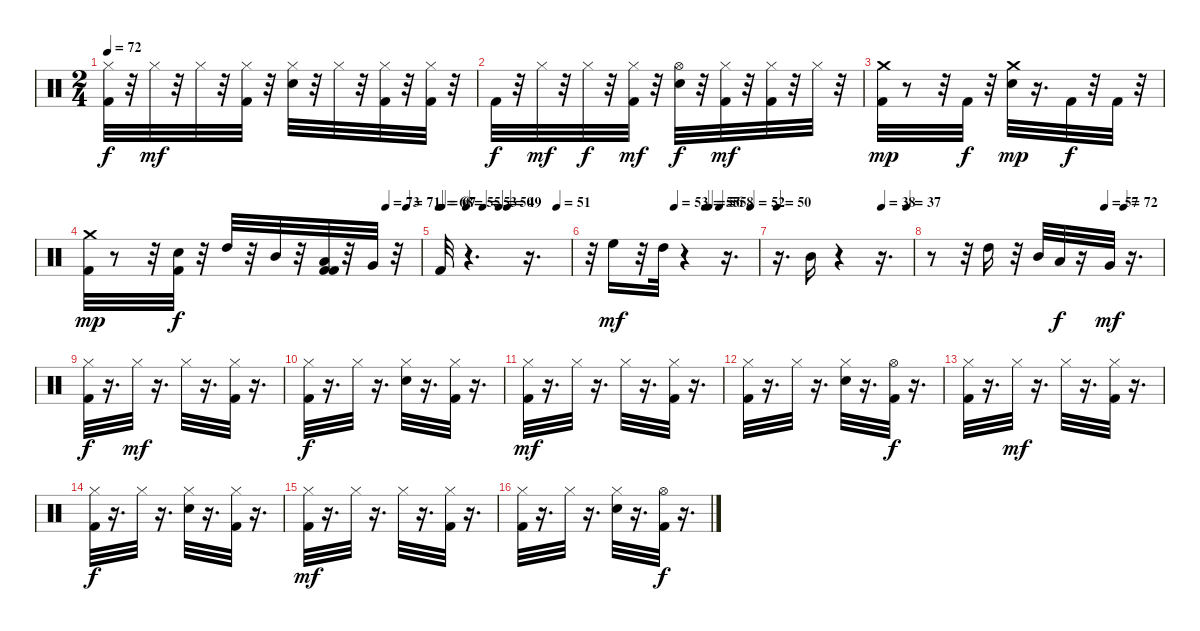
\track "" {instrument percussion}
\staff {score}
\articulation defaults
\ts (2 4)
\tempo 72
\clef neutral
\ks c
("Hi-Hat (closed)" "Kick (hit) 2").32{dy f} r.32 "Hi-Hat (closed)".32{dy mf} r.32 "Hi-Hat (closed)".32 r.32 ("Hi-Hat (closed)" "Kick (hit) 2").32 r.32 ("Hi-Hat (closed)" "Snare (hit) 2").32 r.32 "Hi-Hat (closed)".32 r.32 ("Kick (hit) 2" "Hi-Hat (closed)").32 r.32 ("Kick (hit) 2" "Hi-Hat (closed)").32 r.32 |
"Kick (hit) 2".32{dy f} r.32 "Hi-Hat (closed)".32{dy mf} r.32 "Hi-Hat (closed)".32{dy f} r.32 ("Kick (hit) 2" "Hi-Hat (closed)").32{dy mf} r.32 ("Snare (hit) 2" "Hi-Hat (open)").32{dy f} r.32 ("Kick (hit) 2" "Hi-Hat (closed)").32{dy mf} r.32 ("Hi-Hat (closed)" "Kick (hit) 2").32 r.32 "Hi-Hat (closed)".32 r.32 |
("Crash medium (hit)" "Kick (hit) 2").32{dy mp} r.8 r.32 "Kick (hit) 2".32{dy f} r.32 ("Snare (hit) 2" "Crash medium (hit)").32{dy mp} r.16{d} "Kick (hit) 2".32{dy f} r.32 "Kick (hit) 2".32 r.32 |
\tempo (73 0.8958333333333334)
\tempo (71 0.9583333333333334)
("Kick (hit) 2" "Crash medium (hit)").32{dy mp} r.8 r.32 ("Kick (hit) 2" "Snare (hit) 2").32{dy f} r.32 "High Tom (hit)".32 r.32 "Mid Tom (hit)".32 r.32 ("Kick (hit) 2" "Low Tom (hit)" "Kick (hit) 2").32 r.32 "Very Low Tom (hit)".32 r.32 |
\tempo 68
\tempo (67 0.020833333333333332)
\tempo (55 0.20833333333333334)
\tempo (53 0.3333333333333333)
\tempo (50 0.4583333333333333)
\tempo (49 0.5208333333333334)
\tempo (51 0.8958333333333334)
"Kick (hit) 2".32 r.4{d} r.16{d} |
\tempo (53 0.5)
\tempo (55 0.6875)
\tempo (56 0.7083333333333334)
\tempo (58 0.7708333333333334)
\tempo (52 0.9583333333333334)
r.32 "High Floor Tom (hit)".16{dy mf} r.32 "High Tom (hit)".32 r.4 r.16{d} |
\tempo 50
\tempo (38 0.7708333333333334)
\tempo (37 0.9583333333333334)
r.16{d} "Mid Tom (hit)".16 r.4 r.16{d} |
\tempo (57 0.75)
\tempo (72 0.8333333333333334)
r.8 r.32 "High Tom (hit)".16 r.32 "Mid Tom (hit)".32 "Low Tom (hit)".32{dy f} r.16 "Very Low Tom (hit)".32{dy mf} r.16{d} |
("Hi-Hat (closed)" "Kick (hit) 2").32{dy f} r.16{d} "Hi-Hat (closed)".32{dy mf} r.16{d} "Hi-Hat (closed)".32 r.16{d} ("Hi-Hat (closed)" "Kick (hit) 2").32 r.16{d} |
("Hi-Hat (closed)" "Kick (hit) 2").32{dy f} r.16{d} "Hi-Hat (closed)".32 r.16{d} ("Hi-Hat (closed)" "Snare (hit) 2").32 r.16{d} ("Kick (hit) 2" "Hi-Hat (closed)").32 r.16{d} |
("Kick (hit) 2" "Hi-Hat (closed)").32{dy mf} r.16{d} "Hi-Hat (closed)".32 r.16{d} "Hi-Hat (closed)".32 r.16{d} ("Hi-Hat (closed)" "Kick (hit) 2").32 r.16{d} |
("Hi-Hat (closed)" "Kick (hit) 2").32 r.16{d} "Hi-Hat (closed)".32 r.16{d} ("Hi-Hat (closed)" "Snare (hit) 2").32 r.16{d} ("Hi-Hat (open)" "Kick (hit) 2").32{dy f} r.16{d} |
("Hi-Hat (closed)" "Kick (hit) 2").32 r.16{d} "Hi-Hat (closed)".32{dy mf} r.16{d} "Hi-Hat (closed)".32 r.16{d} ("Hi-Hat (closed)" "Kick (hit) 2").32 r.16{d} |
("Hi-Hat (closed)" "Kick (hit) 2").32{dy f} r.16{d} "Hi-Hat (closed)".32 r.16{d} ("Hi-Hat (closed)" "Snare (hit) 2").32 r.16{d} ("Kick (hit) 2" "Hi-Hat (closed)").32 r.16{d} |
("Kick (hit) 2" "Hi-Hat (closed)").32{dy mf} r.16{d} "Hi-Hat (closed)".32 r.16{d} "Hi-Hat (closed)".32 r.16{d} ("Hi-Hat (closed)" "Kick (hit) 2").32 r.16{d} |
("Hi-Hat (closed)" "Kick (hit) 2").32 r.16{d} "Hi-Hat (closed)".32 r.16{d} ("Hi-Hat (closed)" "Snare (hit) 2").32 r.16{d} ("Hi-Hat (open)" "Kick (hit) 2").32{dy f} r.16{d}
